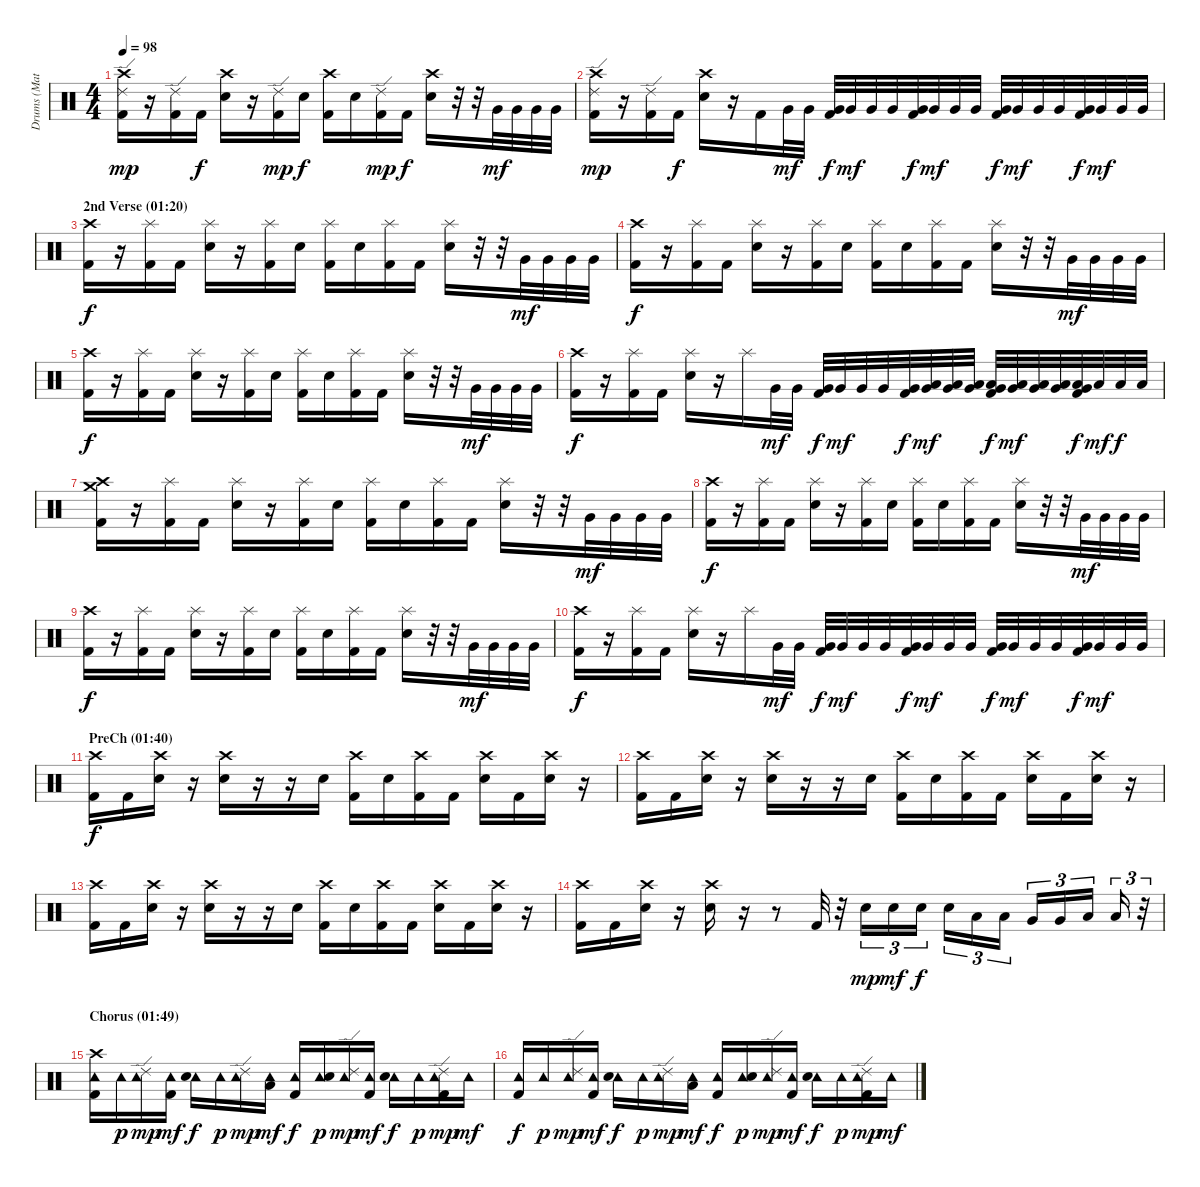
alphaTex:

\track ("Drums (Matt Sorum)" "Drums (Mat") {instrument percussion}
\staff {score}
\articulation defaults
\ts (4 4)
\tempo 98
\clef neutral
\ks c
("Crash high (hit)" "Ride (edge) 2" "Kick (hit) 2").16{dy mp} r.16 ("Ride (edge) 2" "Kick (hit) 2").16 "Kick (hit) 2".16{dy f} ("Crash high (hit)" "Electric Snare (hit)").16 r.16 ("Ride (edge) 2" "Kick (hit) 2").16{dy mp} "Electric Snare (hit)".16{dy f} ("Crash high (hit)" "Kick (hit) 2").16 "Electric Snare (hit)".16 ("Ride (edge) 2" "Kick (hit) 2").16{dy mp} "Kick (hit) 2".16{dy f} ("Crash high (hit)" "Electric Snare (hit)").16 r.32 r.32 "Very Low Tom (hit)".32{dy mf} "Very Low Tom (hit)".32 "Very Low Tom (hit)".32 "Very Low Tom (hit)".32 |
("Crash high (hit)" "Ride (edge) 2" "Kick (hit) 2").16{dy mp} r.16 ("Ride (edge) 2" "Kick (hit) 2").16 "Kick (hit) 2".16{dy f} ("Crash high (hit)" "Electric Snare (hit)").16 r.16 "Kick (hit) 2".16 "Very Low Tom (hit)".32{dy mf} "Very Low Tom (hit)".32 ("Very Low Tom (hit)" "Kick (hit) 2").32{dy f} "Very Low Tom (hit)".32{dy mf} "Very Low Tom (hit)".32 "Very Low Tom (hit)".32 ("Very Low Tom (hit)" "Kick (hit) 2").32{dy f} "Very Low Tom (hit)".32{dy mf} "Very Low Tom (hit)".32 "Very Low Tom (hit)".32 ("Very Low Tom (hit)" "Kick (hit) 2").32{dy f} "Very Low Tom (hit)".32{dy mf} "Very Low Tom (hit)".32 "Very Low Tom (hit)".32 ("Very Low Tom (hit)" "Kick (hit) 2").32{dy f} "Very Low Tom (hit)".32{dy mf} "Very Low Tom (hit)".32 "Very Low Tom (hit)".32 |
\section ("" "2nd Verse (01:20)")
("Crash high (hit)" "Kick (hit) 2").16{dy f} r.16 ("Splash (hit)" "Kick (hit) 2").16 "Kick (hit) 2".16 ("Splash (hit)" "Electric Snare (hit)").16 r.16 ("Splash (hit)" "Kick (hit) 2").16 "Electric Snare (hit)".16 ("Splash (hit)" "Kick (hit) 2").16 "Electric Snare (hit)".16 ("Splash (hit)" "Kick (hit) 2").16 "Kick (hit) 2".16 ("Splash (hit)" "Electric Snare (hit)").16 r.32 r.32 "Very Low Tom (hit)".32{dy mf} "Very Low Tom (hit)".32 "Very Low Tom (hit)".32 "Very Low Tom (hit)".32 |
("Crash high (hit)" "Kick (hit) 2").16{dy f} r.16 ("Splash (hit)" "Kick (hit) 2").16 "Kick (hit) 2".16 ("Splash (hit)" "Electric Snare (hit)").16 r.16 ("Splash (hit)" "Kick (hit) 2").16 "Electric Snare (hit)".16 ("Splash (hit)" "Kick (hit) 2").16 "Electric Snare (hit)".16 ("Splash (hit)" "Kick (hit) 2").16 "Kick (hit) 2".16 ("Splash (hit)" "Electric Snare (hit)").16 r.32 r.32 "Very Low Tom (hit)".32{dy mf} "Very Low Tom (hit)".32 "Very Low Tom (hit)".32 "Very Low Tom (hit)".32 |
("Crash high (hit)" "Kick (hit) 2").16{dy f} r.16 ("Splash (hit)" "Kick (hit) 2").16 "Kick (hit) 2".16 ("Splash (hit)" "Electric Snare (hit)").16 r.16 ("Splash (hit)" "Kick (hit) 2").16 "Electric Snare (hit)".16 ("Splash (hit)" "Kick (hit) 2").16 "Electric Snare (hit)".16 ("Splash (hit)" "Kick (hit) 2").16 "Kick (hit) 2".16 ("Splash (hit)" "Electric Snare (hit)").16 r.32 r.32 "Very Low Tom (hit)".32{dy mf} "Very Low Tom (hit)".32 "Very Low Tom (hit)".32 "Very Low Tom (hit)".32 |
("Crash high (hit)" "Kick (hit) 2").16{dy f} r.16 ("Splash (hit)" "Kick (hit) 2").16 "Kick (hit) 2".16 ("Splash (hit)" "Electric Snare (hit)").16 r.16 "Splash (hit)".16 "Very Low Tom (hit)".32{dy mf} "Very Low Tom (hit)".32 ("Very Low Tom (hit)" "Kick (hit) 2").32{dy f} "Very Low Tom (hit)".32{dy mf} "Very Low Tom (hit)".32 "Very Low Tom (hit)".32 ("Very Low Tom (hit)" "Kick (hit) 2").32{dy f} ("Very Low Tom (hit)" "Low Floor Tom (hit)").32{dy mf} ("Very Low Tom (hit)" "Low Floor Tom (hit)").32 ("Very Low Tom (hit)" "Low Floor Tom (hit)").32 ("Very Low Tom (hit)" "Low Floor Tom (hit)" "Kick (hit) 2").32{dy f} ("Very Low Tom (hit)" "Low Floor Tom (hit)").32{dy mf} ("Very Low Tom (hit)" "Low Floor Tom (hit)").32 ("Very Low Tom (hit)" "Low Floor Tom (hit)").32 ("Very Low Tom (hit)" "Low Floor Tom (hit)" "Kick (hit) 2").32{dy f} "Low Floor Tom (hit)".32{dy mf} "Low Floor Tom (hit)".32{dy f} "Low Floor Tom (hit)".32 |
("Crash medium (hit)" "Crash high (hit)" "Kick (hit) 2").16 r.16 ("Splash (hit)" "Kick (hit) 2").16 "Kick (hit) 2".16 ("Splash (hit)" "Electric Snare (hit)").16 r.16 ("Splash (hit)" "Kick (hit) 2").16 "Electric Snare (hit)".16 ("Splash (hit)" "Kick (hit) 2").16 "Electric Snare (hit)".16 ("Splash (hit)" "Kick (hit) 2").16 "Kick (hit) 2".16 ("Splash (hit)" "Electric Snare (hit)").16 r.32 r.32 "Very Low Tom (hit)".32{dy mf} "Very Low Tom (hit)".32 "Very Low Tom (hit)".32 "Very Low Tom (hit)".32 |
("Crash high (hit)" "Kick (hit) 2").16{dy f} r.16 ("Splash (hit)" "Kick (hit) 2").16 "Kick (hit) 2".16 ("Splash (hit)" "Electric Snare (hit)").16 r.16 ("Splash (hit)" "Kick (hit) 2").16 "Electric Snare (hit)".16 ("Splash (hit)" "Kick (hit) 2").16 "Electric Snare (hit)".16 ("Splash (hit)" "Kick (hit) 2").16 "Kick (hit) 2".16 ("Splash (hit)" "Electric Snare (hit)").16 r.32 r.32 "Very Low Tom (hit)".32{dy mf} "Very Low Tom (hit)".32 "Very Low Tom (hit)".32 "Very Low Tom (hit)".32 |
("Crash high (hit)" "Kick (hit) 2").16{dy f} r.16 ("Splash (hit)" "Kick (hit) 2").16 "Kick (hit) 2".16 ("Splash (hit)" "Electric Snare (hit)").16 r.16 ("Splash (hit)" "Kick (hit) 2").16 "Electric Snare (hit)".16 ("Splash (hit)" "Kick (hit) 2").16 "Electric Snare (hit)".16 ("Splash (hit)" "Kick (hit) 2").16 "Kick (hit) 2".16 ("Splash (hit)" "Electric Snare (hit)").16 r.32 r.32 "Very Low Tom (hit)".32{dy mf} "Very Low Tom (hit)".32 "Very Low Tom (hit)".32 "Very Low Tom (hit)".32 |
("Crash high (hit)" "Kick (hit) 2").16{dy f} r.16 ("Splash (hit)" "Kick (hit) 2").16 "Kick (hit) 2".16 ("Splash (hit)" "Electric Snare (hit)").16 r.16 "Splash (hit)".16 "Very Low Tom (hit)".32{dy mf} "Very Low Tom (hit)".32 ("Very Low Tom (hit)" "Kick (hit) 2").32{dy f} "Very Low Tom (hit)".32{dy mf} "Very Low Tom (hit)".32 "Very Low Tom (hit)".32 ("Very Low Tom (hit)" "Kick (hit) 2").32{dy f} "Very Low Tom (hit)".32{dy mf} "Very Low Tom (hit)".32 "Very Low Tom (hit)".32 ("Very Low Tom (hit)" "Kick (hit) 2").32{dy f} "Very Low Tom (hit)".32{dy mf} "Very Low Tom (hit)".32 "Very Low Tom (hit)".32 ("Very Low Tom (hit)" "Kick (hit) 2").32{dy f} "Very Low Tom (hit)".32{dy mf} "Very Low Tom (hit)".32 "Very Low Tom (hit)".32 |
\section ("" "PreCh (01:40)")
("Crash high (hit)" "Kick (hit) 2").16{dy f} "Kick (hit) 2".16 ("Crash high (hit)" "Electric Snare (hit)").16 r.16 ("Crash high (hit)" "Electric Snare (hit)").16 r.16 r.16 "Electric Snare (hit)".16 ("Crash high (hit)" "Kick (hit) 2").16 "Electric Snare (hit)".16 ("Crash high (hit)" "Kick (hit) 2").16 "Kick (hit) 2".16 ("Crash high (hit)" "Electric Snare (hit)").16 "Kick (hit) 2".16 ("Crash high (hit)" "Electric Snare (hit)").16 r.16 |
("Crash high (hit)" "Kick (hit) 2").16 "Kick (hit) 2".16 ("Crash high (hit)" "Electric Snare (hit)").16 r.16 ("Crash high (hit)" "Electric Snare (hit)").16 r.16 r.16 "Electric Snare (hit)".16 ("Crash high (hit)" "Kick (hit) 2").16 "Electric Snare (hit)".16 ("Crash high (hit)" "Kick (hit) 2").16 "Kick (hit) 2".16 ("Crash high (hit)" "Electric Snare (hit)").16 "Kick (hit) 2".16 ("Crash high (hit)" "Electric Snare (hit)").16 r.16 |
("Crash high (hit)" "Kick (hit) 2").16 "Kick (hit) 2".16 ("Crash high (hit)" "Electric Snare (hit)").16 r.16 ("Crash high (hit)" "Electric Snare (hit)").16 r.16 r.16 "Electric Snare (hit)".16 ("Crash high (hit)" "Kick (hit) 2").16 "Electric Snare (hit)".16 ("Crash high (hit)" "Kick (hit) 2").16 "Kick (hit) 2".16 ("Crash high (hit)" "Electric Snare (hit)").16 "Kick (hit) 2".16 ("Crash high (hit)" "Electric Snare (hit)").16 r.16 |
("Crash high (hit)" "Kick (hit) 2").16 "Kick (hit) 2".16 ("Crash high (hit)" "Electric Snare (hit)").16 r.16 ("Crash high (hit)" "Electric Snare (hit)").16 r.16 r.8 "Kick (hit) 2".32 r.32 "Electric Snare (hit)".16{tu (3 2) dy mp} "Electric Snare (hit)".16{tu (3 2) dy mf} "Electric Snare (hit)".16{tu (3 2) dy f} "Electric Snare (hit)".16{tu (3 2)} "Low Tom (hit)".16{tu (3 2)} "Low Tom (hit)".16{tu (3 2)} "Very Low Tom (hit)".16{tu (3 2)} "Very Low Tom (hit)".16{tu (3 2)} "Low Floor Tom (hit)".16{tu (3 2)} "Low Floor Tom (hit)".16{tu (3 2)} r.32{tu (3 2)} |
\section ("" "Chorus (01:49)")
("Tambourine (hit)" "Crash high (hit)" "Kick (hit) 2").16 "Tambourine (hit)".16{dy p} ("Tambourine (hit)" "Ride (edge) 2").16{dy mp} ("Tambourine (hit)" "Kick (hit) 2").16{dy mf} ("Tambourine (hit)" "Electric Snare (hit)").16{dy f} "Tambourine (hit)".16{dy p} ("Tambourine (hit)" "Ride (edge) 2").16{dy mp} ("Tambourine (hit)" "Low Tom (hit)").16{dy mf} ("Tambourine (hit)" "Kick (hit) 2").16{dy f} ("Tambourine (hit)" "Electric Snare (hit)").16{dy p} ("Tambourine (hit)" "Ride (edge) 2").16{dy mp} ("Tambourine (hit)" "Kick (hit) 2").16{dy mf} ("Tambourine (hit)" "Electric Snare (hit)").16{dy f} "Tambourine (hit)".16{dy p} ("Tambourine (hit)" "Ride (edge) 2" "Kick (hit) 2").16{dy mp} "Tambourine (hit)".16{dy mf} |
("Tambourine (hit)" "Kick (hit) 2").16{dy f} "Tambourine (hit)".16{dy p} ("Tambourine (hit)" "Ride (edge) 2").16{dy mp} ("Tambourine (hit)" "Kick (hit) 2").16{dy mf} ("Tambourine (hit)" "Electric Snare (hit)").16{dy f} "Tambourine (hit)".16{dy p} ("Tambourine (hit)" "Ride (edge) 2").16{dy mp} ("Tambourine (hit)" "Low Tom (hit)").16{dy mf} ("Tambourine (hit)" "Kick (hit) 2").16{dy f} ("Tambourine (hit)" "Electric Snare (hit)").16{dy p} ("Tambourine (hit)" "Ride (edge) 2").16{dy mp} ("Tambourine (hit)" "Kick (hit) 2").16{dy mf} ("Tambourine (hit)" "Electric Snare (hit)").16{dy f} "Tambourine (hit)".16{dy p} ("Tambourine (hit)" "Ride (edge) 2" "Kick (hit) 2").16{dy mp} "Tambourine (hit)".16{dy mf}
